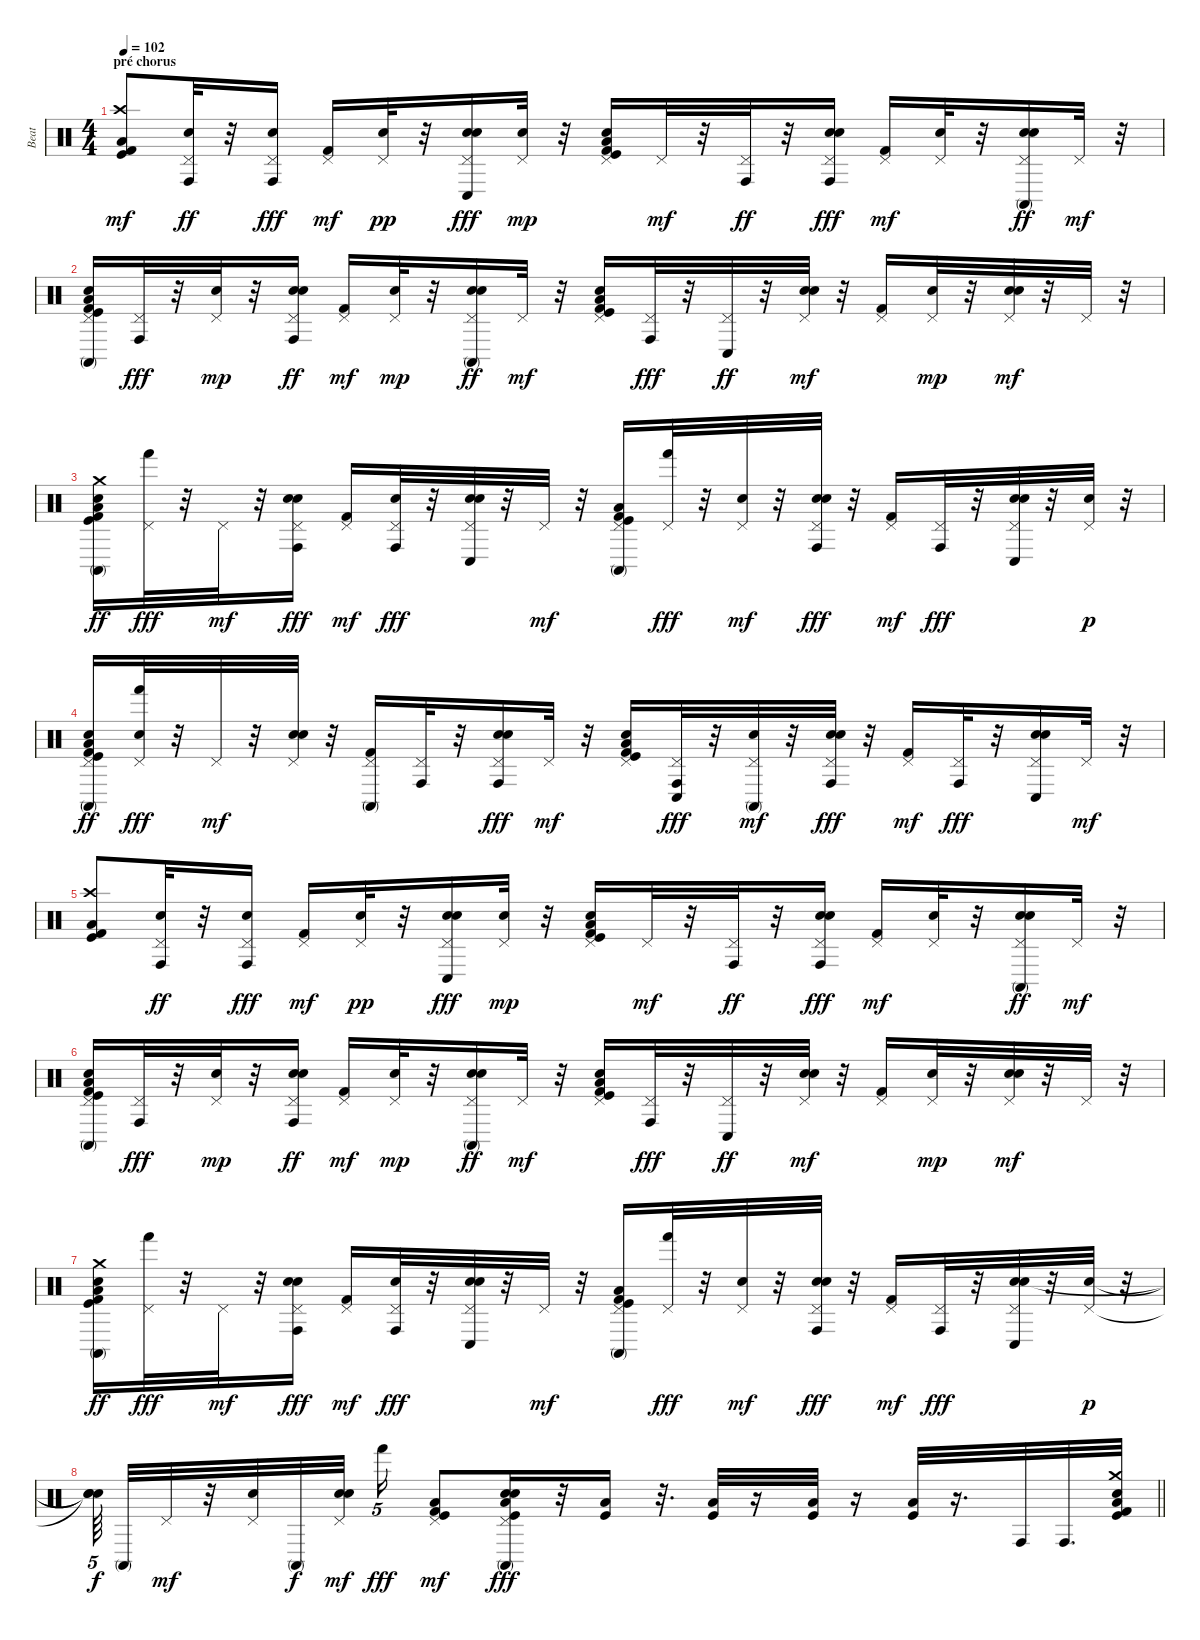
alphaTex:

\track ("Beat" "Beat") {instrument percussion}
\staff {score}
\articulation defaults
\ts (4 4)
\section ("" "pré chorus")
\tempo 102
\clef neutral
\ks c
("Kick (hit) 2" "Kick (hit)" "Low Tom (hit)" "Crash high (hit)").8{dy mf} ("Pedal Hi-Hat (hit)" "Hand Clap (hit)" "Conga high (hit)").32{dy ff} r.32 ("Electric Snare (hit)" "Pedal Hi-Hat (hit)" "Conga high (hit)").16{dy fff} ("Kick (hit) 2" "Pedal Hi-Hat (hit)").16{dy mf} ("Pedal Hi-Hat (hit)" "Hand Clap (hit)").32{dy pp} r.32 ("Electric Snare (hit)" "Pedal Hi-Hat (hit)" "Hand Clap (hit)" "Conga low (hit)").16{dy fff} ("Pedal Hi-Hat (hit)" "Hand Clap (hit)").32{dy mp} r.32 ("Low Tom (hit)" "Kick (hit)" "Kick (hit) 2" "Pedal Hi-Hat (hit)" "Hand Clap (hit)").16 "Pedal Hi-Hat (hit)".32{dy mf} r.32 ("Pedal Hi-Hat (hit)" "Conga high (hit)").32{dy ff} r.32 ("Electric Snare (hit)" "Pedal Hi-Hat (hit)" "Hand Clap (hit)" "Conga high (hit)").16{dy fff} ("Kick (hit) 2" "Pedal Hi-Hat (hit)").16{dy mf} ("Pedal Hi-Hat (hit)" "Hand Clap (hit)").32 r.32 ("Electric Snare (hit)" "Pedal Hi-Hat (hit)" "Hand Clap (hit)" "Conga high (mute)").16{dy ff} "Pedal Hi-Hat (hit)".32{dy mf} r.32 |
("Low Tom (hit)" "Kick (hit)" "Kick (hit) 2" "Pedal Hi-Hat (hit)" "Hand Clap (hit)" "Conga high (mute)").16 ("Pedal Hi-Hat (hit)" "Conga high (hit)").32{dy fff} r.32 ("Pedal Hi-Hat (hit)" "Hand Clap (hit)").32{dy mp} r.32 ("Electric Snare (hit)" "Pedal Hi-Hat (hit)" "Hand Clap (hit)" "Conga high (hit)").16{dy ff} ("Kick (hit) 2" "Pedal Hi-Hat (hit)").16{dy mf} ("Pedal Hi-Hat (hit)" "Hand Clap (hit)").32{dy mp} r.32 ("Electric Snare (hit)" "Pedal Hi-Hat (hit)" "Hand Clap (hit)" "Conga high (mute)").16{dy ff} "Pedal Hi-Hat (hit)".32{dy mf} r.32 ("Low Tom (hit)" "Kick (hit)" "Kick (hit) 2" "Pedal Hi-Hat (hit)" "Hand Clap (hit)").16 ("Pedal Hi-Hat (hit)" "Conga high (hit)").32{dy fff} r.32 ("Pedal Hi-Hat (hit)" "Conga low (hit)").32{dy ff} r.32 ("Electric Snare (hit)" "Pedal Hi-Hat (hit)" "Hand Clap (hit)").32{dy mf} r.32 ("Kick (hit) 2" "Pedal Hi-Hat (hit)").16 ("Pedal Hi-Hat (hit)" "Hand Clap (hit)").32{dy mp} r.32 ("Electric Snare (hit)" "Pedal Hi-Hat (hit)" "Hand Clap (hit)").32{dy mf} r.32 "Pedal Hi-Hat (hit)".32 r.32 |
("Low Tom (hit)" "Kick (hit)" "Kick (hit) 2" "Crash medium (hit)" "Hand Clap (hit)" "Conga high (mute)").16{dy ff} ("Pedal Hi-Hat (hit)" "Hand (hit)").32{dy fff} r.32 "Pedal Hi-Hat (hit)".32{dy mf} r.32 ("Electric Snare (hit)" "Pedal Hi-Hat (hit)" "Hand Clap (hit)" "Conga high (hit)").16{dy fff} ("Kick (hit) 2" "Pedal Hi-Hat (hit)").16{dy mf} ("Pedal Hi-Hat (hit)" "Hand Clap (hit)" "Conga high (hit)").32{dy fff} r.32 ("Electric Snare (hit)" "Pedal Hi-Hat (hit)" "Hand Clap (hit)" "Conga low (hit)").32 r.32 "Pedal Hi-Hat (hit)".32{dy mf} r.32 ("Low Tom (hit)" "Kick (hit)" "Kick (hit) 2" "Pedal Hi-Hat (hit)" "Conga high (mute)").16 ("Pedal Hi-Hat (hit)" "Hand (hit)").32{dy fff} r.32 ("Pedal Hi-Hat (hit)" "Hand Clap (hit)").32{dy mf} r.32 ("Electric Snare (hit)" "Pedal Hi-Hat (hit)" "Hand Clap (hit)" "Conga high (hit)").32{dy fff} r.32 ("Kick (hit) 2" "Pedal Hi-Hat (hit)").16{dy mf} ("Pedal Hi-Hat (hit)" "Conga high (hit)").32{dy fff} r.32 ("Electric Snare (hit)" "Pedal Hi-Hat (hit)" "Hand Clap (hit)" "Conga low (hit)").32 r.32 ("Pedal Hi-Hat (hit)" "Hand Clap (hit)").32{dy p} r.32 |
("Low Tom (hit)" "Kick (hit)" "Kick (hit) 2" "Pedal Hi-Hat (hit)" "Hand Clap (hit)" "Conga high (mute)").16{dy ff} ("Pedal Hi-Hat (hit)" "Hand Clap (hit)" "Hand (hit)").32{dy fff} r.32 "Pedal Hi-Hat (hit)".32{dy mf} r.32 ("Electric Snare (hit)" "Pedal Hi-Hat (hit)" "Hand Clap (hit)").32 r.32 ("Kick (hit) 2" "Pedal Hi-Hat (hit)" "Conga high (mute)").16 ("Pedal Hi-Hat (hit)" "Conga high (hit)").32 r.32 ("Electric Snare (hit)" "Pedal Hi-Hat (hit)" "Hand Clap (hit)" "Conga high (hit)").16{dy fff} "Pedal Hi-Hat (hit)".32{dy mf} r.32 ("Low Tom (hit)" "Kick (hit)" "Kick (hit) 2" "Pedal Hi-Hat (hit)" "Hand Clap (hit)").16 ("Pedal Hi-Hat (hit)" "Conga low (hit)" "Conga high (hit)").32{dy fff} r.32 ("Pedal Hi-Hat (hit)" "Hand Clap (hit)" "Conga high (mute)").32{dy mf} r.32 ("Electric Snare (hit)" "Pedal Hi-Hat (hit)" "Hand Clap (hit)" "Conga high (hit)").32{dy fff} r.32 ("Kick (hit) 2" "Pedal Hi-Hat (hit)").16{dy mf} ("Pedal Hi-Hat (hit)" "Conga high (hit)").32{dy fff} r.32 ("Electric Snare (hit)" "Pedal Hi-Hat (hit)" "Hand Clap (hit)" "Conga low (hit)").16 "Pedal Hi-Hat (hit)".32{dy mf} r.32 |
("Kick (hit) 2" "Kick (hit)" "Low Tom (hit)" "Crash high (hit)").8 ("Pedal Hi-Hat (hit)" "Hand Clap (hit)" "Conga high (hit)").32{dy ff} r.32 ("Electric Snare (hit)" "Pedal Hi-Hat (hit)" "Conga high (hit)").16{dy fff} ("Kick (hit) 2" "Pedal Hi-Hat (hit)").16{dy mf} ("Pedal Hi-Hat (hit)" "Hand Clap (hit)").32{dy pp} r.32 ("Electric Snare (hit)" "Pedal Hi-Hat (hit)" "Hand Clap (hit)" "Conga low (hit)").16{dy fff} ("Pedal Hi-Hat (hit)" "Hand Clap (hit)").32{dy mp} r.32 ("Low Tom (hit)" "Kick (hit)" "Kick (hit) 2" "Pedal Hi-Hat (hit)" "Hand Clap (hit)").16 "Pedal Hi-Hat (hit)".32{dy mf} r.32 ("Pedal Hi-Hat (hit)" "Conga high (hit)").32{dy ff} r.32 ("Electric Snare (hit)" "Pedal Hi-Hat (hit)" "Hand Clap (hit)" "Conga high (hit)").16{dy fff} ("Kick (hit) 2" "Pedal Hi-Hat (hit)").16{dy mf} ("Pedal Hi-Hat (hit)" "Hand Clap (hit)").32 r.32 ("Electric Snare (hit)" "Pedal Hi-Hat (hit)" "Hand Clap (hit)" "Conga high (mute)").16{dy ff} "Pedal Hi-Hat (hit)".32{dy mf} r.32 |
("Low Tom (hit)" "Kick (hit)" "Kick (hit) 2" "Pedal Hi-Hat (hit)" "Hand Clap (hit)" "Conga high (mute)").16 ("Pedal Hi-Hat (hit)" "Conga high (hit)").32{dy fff} r.32 ("Pedal Hi-Hat (hit)" "Hand Clap (hit)").32{dy mp} r.32 ("Electric Snare (hit)" "Pedal Hi-Hat (hit)" "Hand Clap (hit)" "Conga high (hit)").16{dy ff} ("Kick (hit) 2" "Pedal Hi-Hat (hit)").16{dy mf} ("Pedal Hi-Hat (hit)" "Hand Clap (hit)").32{dy mp} r.32 ("Electric Snare (hit)" "Pedal Hi-Hat (hit)" "Hand Clap (hit)" "Conga high (mute)").16{dy ff} "Pedal Hi-Hat (hit)".32{dy mf} r.32 ("Low Tom (hit)" "Kick (hit)" "Kick (hit) 2" "Pedal Hi-Hat (hit)" "Hand Clap (hit)").16 ("Pedal Hi-Hat (hit)" "Conga high (hit)").32{dy fff} r.32 ("Pedal Hi-Hat (hit)" "Conga low (hit)").32{dy ff} r.32 ("Electric Snare (hit)" "Pedal Hi-Hat (hit)" "Hand Clap (hit)").32{dy mf} r.32 ("Kick (hit) 2" "Pedal Hi-Hat (hit)").16 ("Pedal Hi-Hat (hit)" "Hand Clap (hit)").32{dy mp} r.32 ("Electric Snare (hit)" "Pedal Hi-Hat (hit)" "Hand Clap (hit)").32{dy mf} r.32 "Pedal Hi-Hat (hit)".32 r.32 |
("Low Tom (hit)" "Kick (hit)" "Kick (hit) 2" "Crash medium (hit)" "Hand Clap (hit)" "Conga high (mute)").16{dy ff} ("Pedal Hi-Hat (hit)" "Hand (hit)").32{dy fff} r.32 "Pedal Hi-Hat (hit)".32{dy mf} r.32 ("Electric Snare (hit)" "Pedal Hi-Hat (hit)" "Hand Clap (hit)" "Conga high (hit)").16{dy fff} ("Kick (hit) 2" "Pedal Hi-Hat (hit)").16{dy mf} ("Pedal Hi-Hat (hit)" "Hand Clap (hit)" "Conga high (hit)").32{dy fff} r.32 ("Electric Snare (hit)" "Pedal Hi-Hat (hit)" "Hand Clap (hit)" "Conga low (hit)").32 r.32 "Pedal Hi-Hat (hit)".32{dy mf} r.32 ("Low Tom (hit)" "Kick (hit)" "Kick (hit) 2" "Pedal Hi-Hat (hit)" "Conga high (mute)").16 ("Pedal Hi-Hat (hit)" "Hand (hit)").32{dy fff} r.32 ("Pedal Hi-Hat (hit)" "Hand Clap (hit)").32{dy mf} r.32 ("Electric Snare (hit)" "Pedal Hi-Hat (hit)" "Hand Clap (hit)" "Conga high (hit)").32{dy fff} r.32 ("Kick (hit) 2" "Pedal Hi-Hat (hit)").16{dy mf} ("Pedal Hi-Hat (hit)" "Conga high (hit)").32{dy fff} r.32 ("Electric Snare (hit)" "Pedal Hi-Hat (hit)" "Hand Clap (hit)" "Conga low (hit)").32 r.32 ("Pedal Hi-Hat (hit)" "Hand Clap (hit)").32{dy p} r.32 |
\barLineRight lightlight
("Snare (hit)"{t} "Snare (hit)"{t} "Snare (hit)"{t}).64{tu (5 4) dy f beam splitsecondary} "Conga high (mute)".32 "Pedal Hi-Hat (hit)".32{dy mf} r.32 ("Pedal Hi-Hat (hit)" "Hand Clap (hit)").32 "Conga high (mute)".32{dy f} ("Electric Snare (hit)" "Pedal Hi-Hat (hit)" "Hand Clap (hit)").32{dy mf beam splitsecondary} "Hand (hit)".16{tu (5 4) dy fff} ("Kick (hit)" "Low Tom (hit)" "Kick (hit) 2" "Pedal Hi-Hat (hit)").8{dy mf} ("Kick (hit)" "Low Tom (hit)" "Electric Snare (hit)" "Pedal Hi-Hat (hit)" "Hand Clap (hit)" "Conga high (mute)").16{dy fff} r.32 ("Low Tom (hit)" "Kick (hit)").16 r.32{d} ("Low Tom (hit)" "Kick (hit)").32 r.16 ("Low Tom (hit)" "Kick (hit)").32 r.16 ("Low Tom (hit)" "Kick (hit)").32 r.16{d} "Conga high (hit)".32 "Conga high (hit)".32{d} ("Low Tom (hit)" "Kick (hit)" "Kick (hit) 2" "Crash medium (hit)" "Hand Clap (hit)").32
